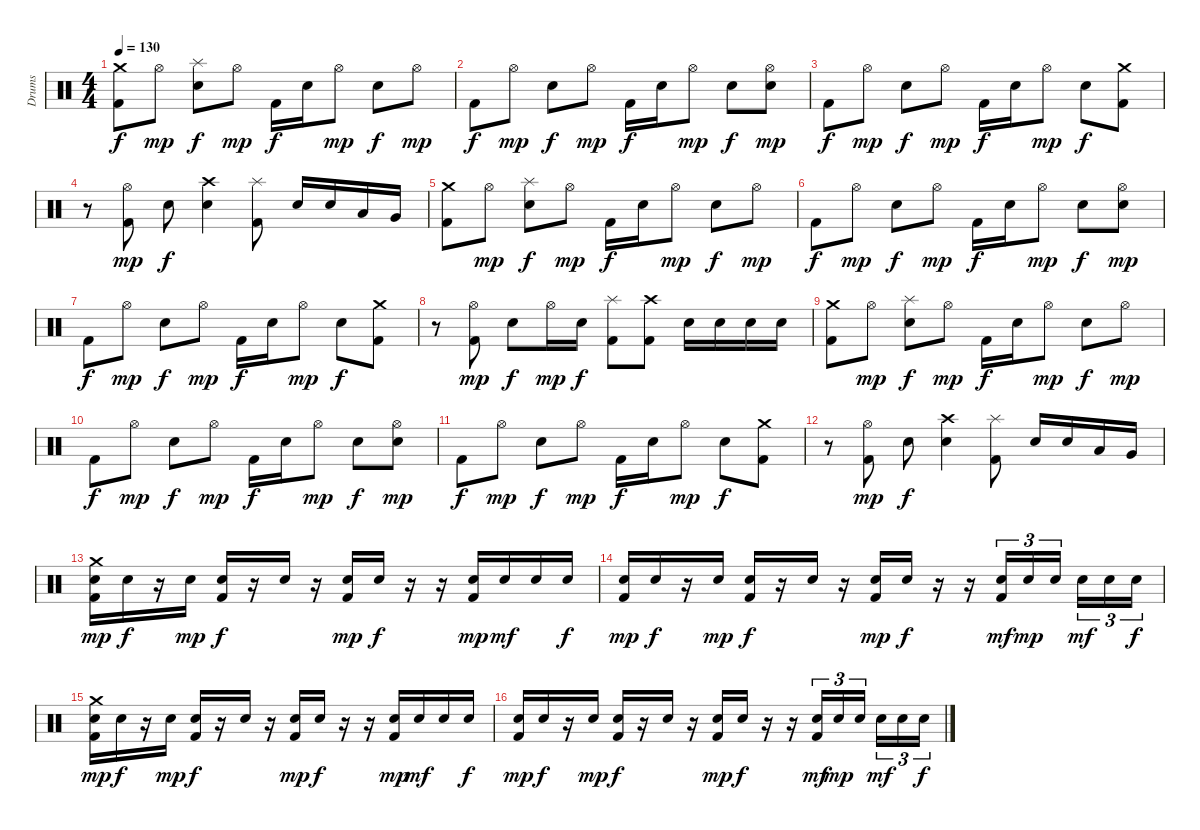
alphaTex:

\track ("Drums" "Drums") {instrument percussion}
\staff {score}
\articulation defaults
\ts (4 4)
\tempo 130
\clef neutral
\ks c
("Crash medium (hit)" "Kick (hit) 2").8{dy f} "Hi-Hat (open)".8{dy mp} ("Splash (hit)" "Snare (hit) 2").8{dy f} "Hi-Hat (open)".8{dy mp} "Kick (hit) 2".16{dy f} "Snare (hit) 2".16 "Hi-Hat (open)".8{dy mp} "Snare (hit) 2".8{dy f} "Hi-Hat (open)".8{dy mp} |
"Kick (hit) 2".8{dy f} "Hi-Hat (open)".8{dy mp} "Snare (hit) 2".8{dy f} "Hi-Hat (open)".8{dy mp} "Kick (hit) 2".16{dy f} "Snare (hit) 2".16 "Hi-Hat (open)".8{dy mp} "Snare (hit) 2".8{dy f} ("Hi-Hat (open)" "Snare (hit) 2").8{dy mp} |
"Kick (hit) 2".8{dy f} "Hi-Hat (open)".8{dy mp} "Snare (hit) 2".8{dy f} "Hi-Hat (open)".8{dy mp} "Kick (hit) 2".16{dy f} "Snare (hit) 2".16 "Hi-Hat (open)".8{dy mp} "Snare (hit) 2".8{dy f} ("Crash medium (hit)" "Kick (hit) 2").8 |
r.8 ("Hi-Hat (open)" "Kick (hit) 2").8{dy mp} "Snare (hit) 2".8{dy f} ("Crash high (hit)" "Snare (hit) 2").4 ("Splash (hit)" "Kick (hit) 2").8 "Snare (hit) 2".16 "Snare (hit) 2".16 "Low Tom (hit)".16 "Very Low Tom (hit)".16 |
("Crash medium (hit)" "Kick (hit) 2").8 "Hi-Hat (open)".8{dy mp} ("Splash (hit)" "Snare (hit) 2").8{dy f} "Hi-Hat (open)".8{dy mp} "Kick (hit) 2".16{dy f} "Snare (hit) 2".16 "Hi-Hat (open)".8{dy mp} "Snare (hit) 2".8{dy f} "Hi-Hat (open)".8{dy mp} |
"Kick (hit) 2".8{dy f} "Hi-Hat (open)".8{dy mp} "Snare (hit) 2".8{dy f} "Hi-Hat (open)".8{dy mp} "Kick (hit) 2".16{dy f} "Snare (hit) 2".16 "Hi-Hat (open)".8{dy mp} "Snare (hit) 2".8{dy f} ("Hi-Hat (open)" "Snare (hit) 2").8{dy mp} |
"Kick (hit) 2".8{dy f} "Hi-Hat (open)".8{dy mp} "Snare (hit) 2".8{dy f} "Hi-Hat (open)".8{dy mp} "Kick (hit) 2".16{dy f} "Snare (hit) 2".16 "Hi-Hat (open)".8{dy mp} "Snare (hit) 2".8{dy f} ("Crash medium (hit)" "Kick (hit) 2").8 |
r.8 ("Hi-Hat (open)" "Kick (hit) 2").8{dy mp} "Snare (hit) 2".8{dy f} "Hi-Hat (open)".16{dy mp} "Snare (hit) 2".16{dy f} ("Splash (hit)" "Kick (hit) 2").8 ("Crash high (hit)" "Kick (hit) 2").8 "Snare (hit) 2".16 "Snare (hit) 2".16 "Snare (hit) 2".16 "Snare (hit) 2".16 |
("Crash medium (hit)" "Kick (hit) 2").8 "Hi-Hat (open)".8{dy mp} ("Splash (hit)" "Snare (hit) 2").8{dy f} "Hi-Hat (open)".8{dy mp} "Kick (hit) 2".16{dy f} "Snare (hit) 2".16 "Hi-Hat (open)".8{dy mp} "Snare (hit) 2".8{dy f} "Hi-Hat (open)".8{dy mp} |
"Kick (hit) 2".8{dy f} "Hi-Hat (open)".8{dy mp} "Snare (hit) 2".8{dy f} "Hi-Hat (open)".8{dy mp} "Kick (hit) 2".16{dy f} "Snare (hit) 2".16 "Hi-Hat (open)".8{dy mp} "Snare (hit) 2".8{dy f} ("Hi-Hat (open)" "Snare (hit) 2").8{dy mp} |
"Kick (hit) 2".8{dy f} "Hi-Hat (open)".8{dy mp} "Snare (hit) 2".8{dy f} "Hi-Hat (open)".8{dy mp} "Kick (hit) 2".16{dy f} "Snare (hit) 2".16 "Hi-Hat (open)".8{dy mp} "Snare (hit) 2".8{dy f} ("Crash medium (hit)" "Kick (hit) 2").8 |
r.8 ("Hi-Hat (open)" "Kick (hit) 2").8{dy mp} "Snare (hit) 2".8{dy f} ("Crash high (hit)" "Snare (hit) 2").4 ("Splash (hit)" "Kick (hit) 2").8 "Snare (hit) 2".16 "Snare (hit) 2".16 "Low Tom (hit)".16 "Very Low Tom (hit)".16 |
("Crash medium (hit)" "Snare (hit) 2" "Kick (hit) 2").16{dy mp} "Snare (hit) 2".16{dy f} r.16 "Snare (hit) 2".16{dy mp} ("Snare (hit) 2" "Kick (hit) 2").16{dy f} r.16 "Snare (hit) 2".16 r.16 ("Snare (hit) 2" "Kick (hit) 2").16{dy mp} "Snare (hit) 2".16{dy f} r.16 r.16 ("Snare (hit) 2" "Kick (hit) 2").16{dy mp} "Snare (hit) 2".16{dy mf} "Snare (hit) 2".16 "Snare (hit) 2".16{dy f} |
("Snare (hit) 2" "Kick (hit) 2").16{dy mp} "Snare (hit) 2".16{dy f} r.16 "Snare (hit) 2".16{dy mp} ("Snare (hit) 2" "Kick (hit) 2").16{dy f} r.16 "Snare (hit) 2".16 r.16 ("Snare (hit) 2" "Kick (hit) 2").16{dy mp} "Snare (hit) 2".16{dy f} r.16 r.16 ("Snare (hit) 2" "Kick (hit) 2").16{tu (3 2) dy mf} "Snare (hit) 2".16{tu (3 2) dy mp} "Snare (hit) 2".16{tu (3 2) beam splitsecondary} "Snare (hit) 2".16{tu (3 2) dy mf} "Snare (hit) 2".16{tu (3 2)} "Snare (hit) 2".16{tu (3 2) dy f} |
("Crash medium (hit)" "Snare (hit) 2" "Kick (hit) 2").16{dy mp} "Snare (hit) 2".16{dy f} r.16 "Snare (hit) 2".16{dy mp} ("Snare (hit) 2" "Kick (hit) 2").16{dy f} r.16 "Snare (hit) 2".16 r.16 ("Snare (hit) 2" "Kick (hit) 2").16{dy mp} "Snare (hit) 2".16{dy f} r.16 r.16 ("Snare (hit) 2" "Kick (hit) 2").16{dy mp} "Snare (hit) 2".16{dy mf} "Snare (hit) 2".16 "Snare (hit) 2".16{dy f} |
("Snare (hit) 2" "Kick (hit) 2").16{dy mp} "Snare (hit) 2".16{dy f} r.16 "Snare (hit) 2".16{dy mp} ("Snare (hit) 2" "Kick (hit) 2").16{dy f} r.16 "Snare (hit) 2".16 r.16 ("Snare (hit) 2" "Kick (hit) 2").16{dy mp} "Snare (hit) 2".16{dy f} r.16 r.16 ("Snare (hit) 2" "Kick (hit) 2").16{tu (3 2) dy mf} "Snare (hit) 2".16{tu (3 2) dy mp} "Snare (hit) 2".16{tu (3 2) beam splitsecondary} "Snare (hit) 2".16{tu (3 2) dy mf} "Snare (hit) 2".16{tu (3 2)} "Snare (hit) 2".16{tu (3 2) dy f}
